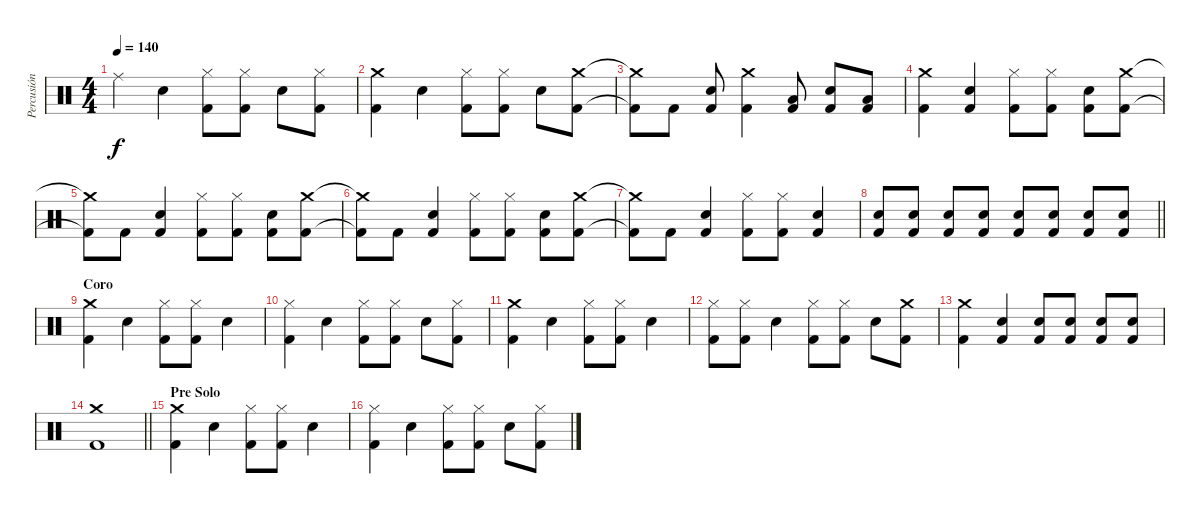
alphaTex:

\track ("Percusión" "Percusión") {instrument percussion}
\staff {score}
\articulation defaults
\ts (4 4)
\tempo 140
\clef neutral
\ks c "Ride (middle)"{t}.4{dy f} "Snare (hit) 2".4
("Hi-Hat (closed)" "Kick (hit) 2").8 ("Hi-Hat (closed)" "Kick (hit) 2").8 "Snare (hit) 2".8 ("Hi-Hat (closed)" "Kick (hit) 2").8 |
("Crash medium (hit)" "Kick (hit) 2").4 "Snare (hit) 2".4 ("Hi-Hat (closed)" "Kick (hit) 2").8 ("Hi-Hat (closed)" "Kick (hit) 2").8 "Snare (hit) 2".8 ("Crash medium (hit)" "Kick (hit) 2").8 |
("Crash medium (hit)"{t} "Kick (hit) 2"{t}).8 "Kick (hit) 2".8 ("Snare (hit) 2" "Kick (hit) 2").8 ("Crash medium (hit)" "Kick (hit) 2").4 ("Low Floor Tom (hit)" "Kick (hit) 2").8 ("Snare (hit) 2" "Kick (hit) 2").8 ("Low Floor Tom (hit)" "Kick (hit) 2").8 |
("Crash medium (hit)" "Kick (hit) 2").4 ("Snare (hit) 2" "Kick (hit) 2").4 ("Hi-Hat (closed)" "Kick (hit) 2").8 ("Hi-Hat (closed)" "Kick (hit) 2").8 ("Snare (hit) 2" "Kick (hit) 2").8 ("Crash medium (hit)" "Kick (hit) 2").8 |
("Crash medium (hit)"{t} "Kick (hit) 2"{t}).8 "Kick (hit) 2".8 ("Snare (hit) 2" "Kick (hit) 2").4 ("Hi-Hat (closed)" "Kick (hit) 2").8 ("Hi-Hat (closed)" "Kick (hit) 2").8 ("Snare (hit) 2" "Kick (hit) 2").8 ("Crash medium (hit)" "Kick (hit) 2").8 |
("Crash medium (hit)"{t} "Kick (hit) 2"{t}).8 "Kick (hit) 2".8 ("Snare (hit) 2" "Kick (hit) 2").4 ("Hi-Hat (closed)" "Kick (hit) 2").8 ("Hi-Hat (closed)" "Kick (hit) 2").8 ("Snare (hit) 2" "Kick (hit) 2").8 ("Crash medium (hit)" "Kick (hit) 2").8 |
("Crash medium (hit)"{t} "Kick (hit) 2"{t}).8 "Kick (hit) 2".8 ("Snare (hit) 2" "Kick (hit) 2").4 ("Hi-Hat (closed)" "Kick (hit) 2").8 ("Hi-Hat (closed)" "Kick (hit) 2").8 ("Snare (hit) 2" "Kick (hit) 2").4 |
\barLineRight lightlight
("Snare (hit) 2" "Kick (hit) 2").8 ("Snare (hit) 2" "Kick (hit) 2").8 ("Snare (hit) 2" "Kick (hit) 2").8 ("Snare (hit) 2" "Kick (hit) 2").8 ("Snare (hit) 2" "Kick (hit) 2").8 ("Snare (hit) 2" "Kick (hit) 2").8 ("Snare (hit) 2" "Kick (hit) 2").8 ("Snare (hit) 2" "Kick (hit) 2").8 |
\section ("" "Coro")
("Crash medium (hit)" "Kick (hit) 2").4 "Snare (hit) 2".4 ("Hi-Hat (closed)" "Kick (hit) 2").8 ("Hi-Hat (closed)" "Kick (hit) 2").8 "Snare (hit) 2".4 |
("Hi-Hat (closed)" "Kick (hit) 2").4 "Snare (hit) 2".4 ("Hi-Hat (closed)" "Kick (hit) 2").8 ("Hi-Hat (closed)" "Kick (hit) 2").8 "Snare (hit) 2".8 ("Hi-Hat (closed)" "Kick (hit) 2").8 |
("Crash medium (hit)" "Kick (hit) 2").4 "Snare (hit) 2".4 ("Hi-Hat (closed)" "Kick (hit) 2").8 ("Hi-Hat (closed)" "Kick (hit) 2").8 "Snare (hit) 2".4 |
("Hi-Hat (closed)" "Kick (hit) 2").8 ("Hi-Hat (closed)" "Kick (hit) 2").8 "Snare (hit) 2".4 ("Hi-Hat (closed)" "Kick (hit) 2").8 ("Hi-Hat (closed)" "Kick (hit) 2").8 "Snare (hit) 2".8 ("Crash medium (hit)" "Kick (hit) 2").8 |
("Crash medium (hit)" "Kick (hit) 2").4 ("Snare (hit) 2" "Kick (hit) 2").4 ("Snare (hit) 2" "Kick (hit) 2").8 ("Snare (hit) 2" "Kick (hit) 2").8 ("Snare (hit) 2" "Kick (hit) 2").8 ("Snare (hit) 2" "Kick (hit) 2").8 |
\barLineRight lightlight
("Crash medium (hit)" "Kick (hit) 2").1 |
\section ("" "Pre Solo")
("Crash medium (hit)" "Kick (hit) 2").4 "Snare (hit) 2".4 ("Hi-Hat (closed)" "Kick (hit) 2").8 ("Hi-Hat (closed)" "Kick (hit) 2").8 "Snare (hit) 2".4 |
("Hi-Hat (closed)" "Kick (hit) 2").4 "Snare (hit) 2".4 ("Hi-Hat (closed)" "Kick (hit) 2").8 ("Hi-Hat (closed)" "Kick (hit) 2").8 "Snare (hit) 2".8 ("Hi-Hat (closed)" "Kick (hit) 2").8
